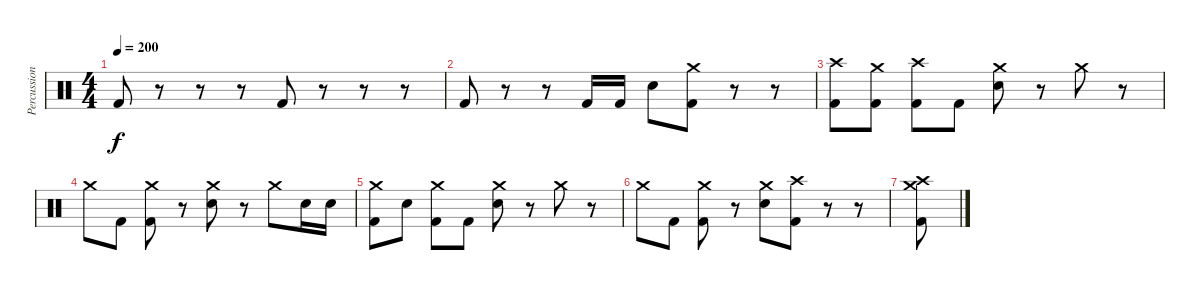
\track ("Percussion" "Percussion") {instrument percussion}
\staff {score}
\articulation defaults
\ts (4 4)
\tempo 200
\clef neutral
\ks c "Kick (hit) 2".8{dy f}
r.8 r.8 r.8 "Kick (hit) 2".8 r.8 r.8 r.8 |
"Kick (hit) 2".8 r.8 r.8 "Kick (hit) 2".16 "Kick (hit) 2".16 "Snare (hit) 2".8 ("Crash medium (hit)" "Kick (hit) 2").8 r.8 r.8 |
("Crash high (hit)" "Kick (hit) 2").8 ("Crash medium (hit)" "Kick (hit) 2").8 ("Crash high (hit)" "Kick (hit) 2").8 "Kick (hit) 2".8 ("Crash medium (hit)" "Snare (hit) 2").8 r.8 "Crash medium (hit)".8 r.8 |
"Crash medium (hit)".8 "Kick (hit) 2".8 ("Crash medium (hit)" "Kick (hit) 2").8 r.8 ("Crash medium (hit)" "Snare (hit) 2").8 r.8 "Crash medium (hit)".8 "Snare (hit) 2".16 "Snare (hit) 2".16 |
("Crash medium (hit)" "Kick (hit) 2").8 "Snare (hit) 2".8 ("Crash medium (hit)" "Kick (hit) 2").8 "Kick (hit) 2".8 ("Crash medium (hit)" "Snare (hit) 2").8 r.8 "Crash medium (hit)".8 r.8 |
"Crash medium (hit)".8 "Kick (hit) 2".8 ("Crash medium (hit)" "Kick (hit) 2").8 r.8 ("Crash medium (hit)" "Snare (hit) 2").8 ("Crash high (hit)" "Kick (hit) 2").8 r.8 r.8 |
("Crash high (hit)" "Crash medium (hit)" "Kick (hit) 2").8
